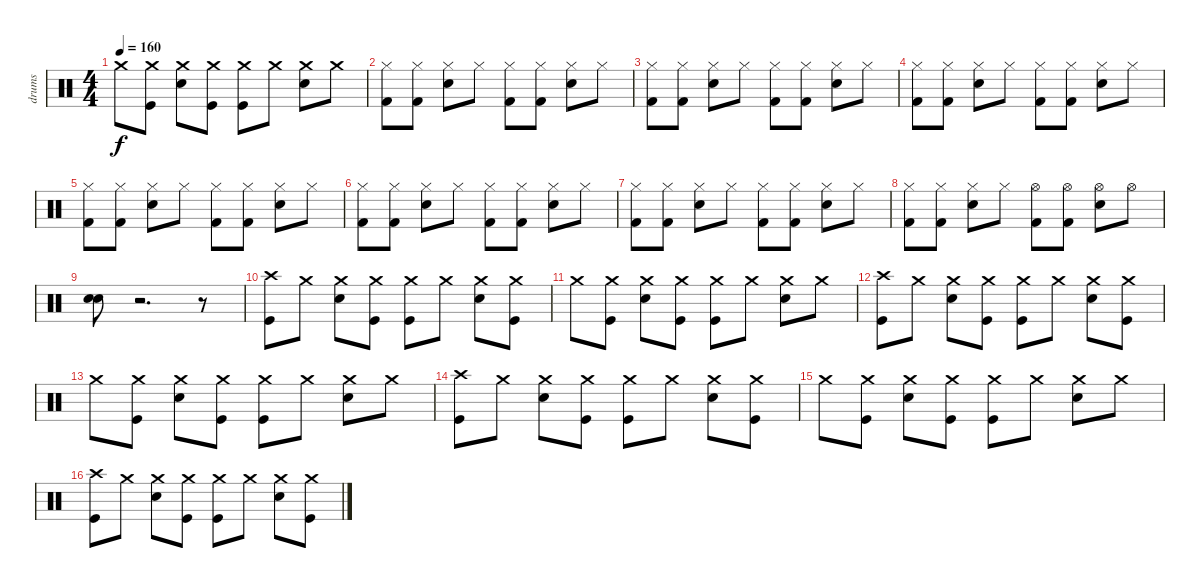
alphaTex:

\track ("drums" "drums") {instrument percussion}
\staff {score}
\articulation defaults
\ts (4 4)
\tempo 160
\clef neutral
\ks c "Crash medium (hit)".8{dy f}
("Crash medium (hit)" "Kick (hit)").8 ("Crash medium (hit)" "Snare (hit) 2").8 ("Crash medium (hit)" "Kick (hit)").8 ("Crash medium (hit)" "Kick (hit)").8 "Crash medium (hit)".8 ("Crash medium (hit)" "Snare (hit) 2").8 "Crash medium (hit)".8 |
("Hi-Hat (closed)" "Kick (hit) 2").8 ("Hi-Hat (closed)" "Kick (hit) 2").8 ("Hi-Hat (closed)" "Electric Snare (hit)").8 "Hi-Hat (closed)".8 ("Hi-Hat (closed)" "Kick (hit) 2").8 ("Hi-Hat (closed)" "Kick (hit) 2").8 ("Hi-Hat (closed)" "Electric Snare (hit)").8 "Hi-Hat (closed)".8 |
("Hi-Hat (closed)" "Kick (hit) 2").8 ("Hi-Hat (closed)" "Kick (hit) 2").8 ("Hi-Hat (closed)" "Electric Snare (hit)").8 "Hi-Hat (closed)".8 ("Hi-Hat (closed)" "Kick (hit) 2").8 ("Hi-Hat (closed)" "Kick (hit) 2").8 ("Hi-Hat (closed)" "Electric Snare (hit)").8 "Hi-Hat (closed)".8 |
("Hi-Hat (closed)" "Kick (hit) 2").8 ("Hi-Hat (closed)" "Kick (hit) 2").8 ("Hi-Hat (closed)" "Electric Snare (hit)").8 "Hi-Hat (closed)".8 ("Hi-Hat (closed)" "Kick (hit) 2").8 ("Hi-Hat (closed)" "Kick (hit) 2").8 ("Hi-Hat (closed)" "Electric Snare (hit)").8 "Hi-Hat (closed)".8 |
("Hi-Hat (closed)" "Kick (hit) 2").8 ("Hi-Hat (closed)" "Kick (hit) 2").8 ("Hi-Hat (closed)" "Electric Snare (hit)").8 "Hi-Hat (closed)".8 ("Hi-Hat (closed)" "Kick (hit) 2").8 ("Hi-Hat (closed)" "Kick (hit) 2").8 ("Hi-Hat (closed)" "Electric Snare (hit)").8 "Hi-Hat (closed)".8 |
("Hi-Hat (closed)" "Kick (hit) 2").8 ("Hi-Hat (closed)" "Kick (hit) 2").8 ("Hi-Hat (closed)" "Electric Snare (hit)").8 "Hi-Hat (closed)".8 ("Hi-Hat (closed)" "Kick (hit) 2").8 ("Hi-Hat (closed)" "Kick (hit) 2").8 ("Hi-Hat (closed)" "Electric Snare (hit)").8 "Hi-Hat (closed)".8 |
("Hi-Hat (closed)" "Kick (hit) 2").8 ("Hi-Hat (closed)" "Kick (hit) 2").8 ("Hi-Hat (closed)" "Electric Snare (hit)").8 "Hi-Hat (closed)".8 ("Hi-Hat (closed)" "Kick (hit) 2").8 ("Hi-Hat (closed)" "Kick (hit) 2").8 ("Hi-Hat (closed)" "Electric Snare (hit)").8 "Hi-Hat (closed)".8 |
("Hi-Hat (closed)" "Kick (hit) 2").8 ("Hi-Hat (closed)" "Kick (hit) 2").8 ("Hi-Hat (closed)" "Electric Snare (hit)").8 "Hi-Hat (closed)".8 ("Hi-Hat (open)" "Kick (hit) 2").8 ("Hi-Hat (open)" "Kick (hit) 2").8 ("Hi-Hat (open)" "Electric Snare (hit)").8 "Hi-Hat (open)".8 |
("Electric Snare (hit)" "Electric Snare (hit)").8 r.2{d} r.8 |
("Crash high (hit)" "Kick (hit)").8 "Crash medium (hit)".8 ("Crash medium (hit)" "Snare (hit) 2").8 ("Crash medium (hit)" "Kick (hit)").8 ("Crash medium (hit)" "Kick (hit)").8 "Crash medium (hit)".8 ("Crash medium (hit)" "Snare (hit) 2").8 ("Crash medium (hit)" "Kick (hit)").8 |
"Crash medium (hit)".8 ("Crash medium (hit)" "Kick (hit)").8 ("Crash medium (hit)" "Snare (hit) 2").8 ("Crash medium (hit)" "Kick (hit)").8 ("Crash medium (hit)" "Kick (hit)").8 "Crash medium (hit)".8 ("Crash medium (hit)" "Snare (hit) 2").8 "Crash medium (hit)".8 |
("Crash high (hit)" "Kick (hit)").8 "Crash medium (hit)".8 ("Crash medium (hit)" "Snare (hit) 2").8 ("Crash medium (hit)" "Kick (hit)").8 ("Crash medium (hit)" "Kick (hit)").8 "Crash medium (hit)".8 ("Crash medium (hit)" "Snare (hit) 2").8 ("Crash medium (hit)" "Kick (hit)").8 |
"Crash medium (hit)".8 ("Crash medium (hit)" "Kick (hit)").8 ("Crash medium (hit)" "Snare (hit) 2").8 ("Crash medium (hit)" "Kick (hit)").8 ("Crash medium (hit)" "Kick (hit)").8 "Crash medium (hit)".8 ("Crash medium (hit)" "Snare (hit) 2").8 "Crash medium (hit)".8 |
("Crash high (hit)" "Kick (hit)").8 "Crash medium (hit)".8 ("Crash medium (hit)" "Snare (hit) 2").8 ("Crash medium (hit)" "Kick (hit)").8 ("Crash medium (hit)" "Kick (hit)").8 "Crash medium (hit)".8 ("Crash medium (hit)" "Snare (hit) 2").8 ("Crash medium (hit)" "Kick (hit)").8 |
"Crash medium (hit)".8 ("Crash medium (hit)" "Kick (hit)").8 ("Crash medium (hit)" "Snare (hit) 2").8 ("Crash medium (hit)" "Kick (hit)").8 ("Crash medium (hit)" "Kick (hit)").8 "Crash medium (hit)".8 ("Crash medium (hit)" "Snare (hit) 2").8 "Crash medium (hit)".8 |
("Crash high (hit)" "Kick (hit)").8 "Crash medium (hit)".8 ("Crash medium (hit)" "Snare (hit) 2").8 ("Crash medium (hit)" "Kick (hit)").8 ("Crash medium (hit)" "Kick (hit)").8 "Crash medium (hit)".8 ("Crash medium (hit)" "Snare (hit) 2").8 ("Crash medium (hit)" "Kick (hit)").8
